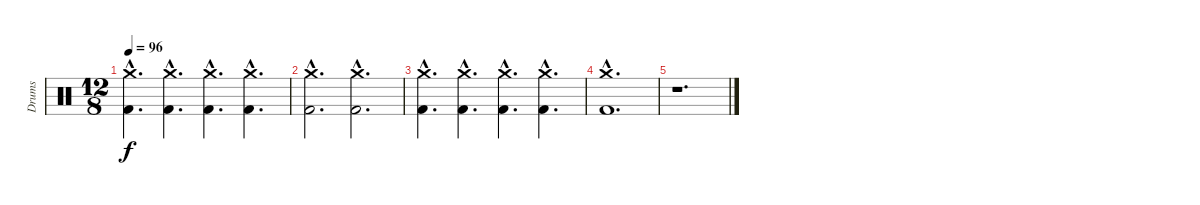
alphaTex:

\track ("Drums" "Drums") {instrument percussion}
\staff {score}
\articulation defaults
\ts (12 8)
\tempo 96
\clef neutral
\ks c
("Crash medium (hit)"{hac} "Kick (hit) 2"{hac}).4{d dy f} ("Crash medium (hit)"{hac} "Kick (hit) 2"{hac}).4{d} ("Crash medium (hit)"{hac} "Kick (hit) 2"{hac}).4{d} ("Crash medium (hit)"{hac} "Kick (hit) 2"{hac}).4{d} |
("Crash medium (hit)"{hac} "Kick (hit) 2"{hac}).2{d} ("Crash medium (hit)"{hac} "Kick (hit) 2"{hac}).2{d} |
("Crash medium (hit)"{hac} "Kick (hit) 2"{hac}).4{d} ("Crash medium (hit)"{hac} "Kick (hit) 2"{hac}).4{d} ("Crash medium (hit)"{hac} "Kick (hit) 2"{hac}).4{d} ("Crash medium (hit)"{hac} "Kick (hit) 2"{hac}).4{d} |
("Crash medium (hit)"{hac} "Kick (hit) 2"{hac}).1{d} |
r.1{d}
